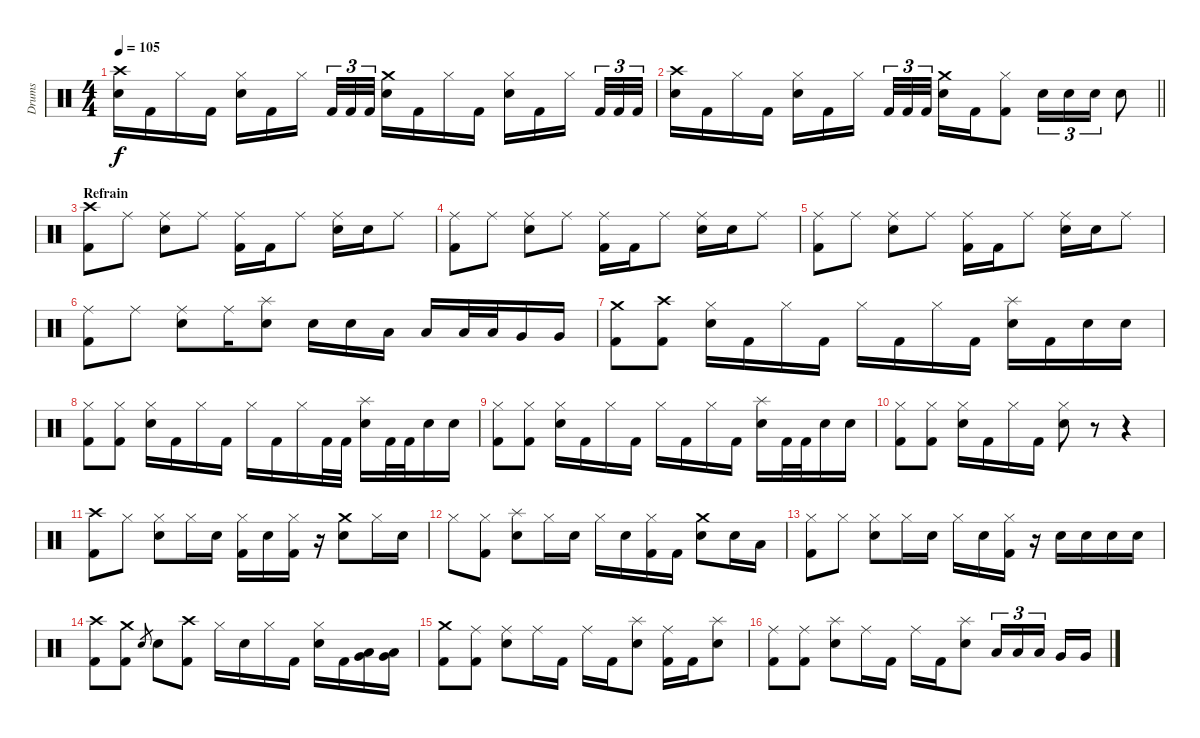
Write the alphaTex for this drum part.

\track ("Drums" "Drums") {instrument percussion}
\staff {score}
\articulation defaults
\ts (4 4)
\tempo 105
\clef neutral
\ks c
("Crash high (hit)" "Electric Snare (hit)").16{dy f} "Kick (hit) 2".16 "Hi-Hat (closed)".16 "Kick (hit) 2".16 ("Hi-Hat (closed)" "Electric Snare (hit)").16 "Kick (hit) 2".16 "Hi-Hat (closed)".16{beam splitsecondary} "Kick (hit) 2".32{tu (3 2)} "Kick (hit) 2".32{tu (3 2)} "Kick (hit) 2".32{tu (3 2)} ("Crash medium (hit)" "Electric Snare (hit)").16 "Kick (hit) 2".16 "Hi-Hat (closed)".16 "Kick (hit) 2".16 ("Hi-Hat (closed)" "Electric Snare (hit)").16 "Kick (hit) 2".16 "Hi-Hat (closed)".16{beam splitsecondary} "Kick (hit) 2".32{tu (3 2)} "Kick (hit) 2".32{tu (3 2)} "Kick (hit) 2".32{tu (3 2)} |
\barLineRight lightlight
("Crash high (hit)" "Electric Snare (hit)").16 "Kick (hit) 2".16 "Hi-Hat (closed)".16 "Kick (hit) 2".16 ("Hi-Hat (closed)" "Electric Snare (hit)").16 "Kick (hit) 2".16 "Hi-Hat (closed)".16{beam splitsecondary} "Kick (hit) 2".32{tu (3 2)} "Kick (hit) 2".32{tu (3 2)} "Kick (hit) 2".32{tu (3 2)} ("Crash medium (hit)" "Electric Snare (hit)").16 "Kick (hit) 2".16 ("Hi-Hat (closed)" "Kick (hit) 2").8 "Electric Snare (hit)".16{tu (3 2)} "Electric Snare (hit)".16{tu (3 2)} "Electric Snare (hit)".16{tu (3 2)} "Electric Snare (hit)".8 |
\section ("" "Refrain")
("Crash high (hit)" "Kick (hit) 2").8 "Ride (middle)".8 ("Ride (middle)" "Electric Snare (hit)").8 "Ride (middle)".8 ("Ride (middle)" "Kick (hit) 2").16 "Kick (hit) 2".16 "Ride (middle)".8 ("Ride (middle)" "Electric Snare (hit)").16 "Electric Snare (hit)".16 "Ride (middle)".8 |
("Ride (middle)" "Kick (hit) 2").8 "Ride (middle)".8 ("Ride (middle)" "Electric Snare (hit)").8 "Ride (middle)".8 ("Ride (middle)" "Kick (hit) 2").16 "Kick (hit) 2".16 "Ride (middle)".8 ("Ride (middle)" "Electric Snare (hit)").16 "Electric Snare (hit)".16 "Ride (middle)".8 |
("Ride (middle)" "Kick (hit) 2").8 "Ride (middle)".8 ("Ride (middle)" "Electric Snare (hit)").8 "Ride (middle)".8 ("Ride (middle)" "Kick (hit) 2").16 "Kick (hit) 2".16 "Ride (middle)".8 ("Ride (middle)" "Electric Snare (hit)").16 "Electric Snare (hit)".16 "Ride (middle)".8 |
("Ride (middle)" "Kick (hit) 2").8 "Ride (middle)".8 ("Ride (middle)" "Electric Snare (hit)").8 "Ride (middle)".16 ("Splash (hit)" "Electric Snare (hit)").8 "Electric Snare (hit)".16 "Electric Snare (hit)".16 "Low Tom (hit)".16 "Low Tom (hit)".16 "Low Tom (hit)".32 "Low Tom (hit)".32 "Very Low Tom (hit)".16 "Very Low Tom (hit)".16 |
("Crash medium (hit)" "Kick (hit) 2").8 ("Crash high (hit)" "Kick (hit) 2").8 ("Hi-Hat (closed)" "Electric Snare (hit)").16 "Kick (hit) 2".16 "Hi-Hat (closed)".16 "Kick (hit) 2".16 "Hi-Hat (closed)".16 "Kick (hit) 2".16 "Hi-Hat (closed)".16 "Kick (hit) 2".16 ("Splash (hit)" "Electric Snare (hit)").16 "Kick (hit) 2".16 "Electric Snare (hit)".16 "Electric Snare (hit)".16 |
("Hi-Hat (closed)" "Kick (hit) 2").8 ("Hi-Hat (closed)" "Kick (hit) 2").8 ("Hi-Hat (closed)" "Electric Snare (hit)").16 "Kick (hit) 2".16 "Hi-Hat (closed)".16 "Kick (hit) 2".16 "Hi-Hat (closed)".16 "Kick (hit) 2".16 "Hi-Hat (closed)".16 "Kick (hit) 2".32 "Kick (hit) 2".32 ("Splash (hit)" "Electric Snare (hit)").16 "Kick (hit) 2".32 "Kick (hit) 2".32 "Electric Snare (hit)".16 "Electric Snare (hit)".16 |
("Hi-Hat (closed)" "Kick (hit) 2").8 ("Hi-Hat (closed)" "Kick (hit) 2").8 ("Hi-Hat (closed)" "Electric Snare (hit)").16 "Kick (hit) 2".16 "Hi-Hat (closed)".16 "Kick (hit) 2".16 "Hi-Hat (closed)".16 "Kick (hit) 2".16 "Hi-Hat (closed)".16 "Kick (hit) 2".16 ("Splash (hit)" "Electric Snare (hit)").16 "Kick (hit) 2".32 "Kick (hit) 2".32 "Electric Snare (hit)".16 "Electric Snare (hit)".16 |
("Hi-Hat (closed)" "Kick (hit) 2").8 ("Hi-Hat (closed)" "Kick (hit) 2").8 ("Hi-Hat (closed)" "Electric Snare (hit)").16 "Kick (hit) 2".16 "Hi-Hat (closed)".16 "Kick (hit) 2".16 ("Hi-Hat (closed)" "Electric Snare (hit)").8 r.8 r.4 |
("Crash high (hit)" "Kick (hit) 2").8 "Hi-Hat (closed)".8 ("Hi-Hat (closed)" "Electric Snare (hit)").8 "Hi-Hat (closed)".16 "Electric Snare (hit)".16 ("Hi-Hat (closed)" "Kick (hit) 2").16 "Electric Snare (hit)".16 ("Hi-Hat (closed)" "Kick (hit) 2").16 r.16 ("Crash medium (hit)" "Electric Snare (hit)").8 "Hi-Hat (closed)".16 "Electric Snare (hit)".16 |
"Hi-Hat (closed)".8 ("Hi-Hat (closed)" "Kick (hit) 2").8 ("Splash (hit)" "Electric Snare (hit)").8 "Hi-Hat (closed)".16 "Electric Snare (hit)".16 "Hi-Hat (closed)".16 "Electric Snare (hit)".16 ("Hi-Hat (closed)" "Kick (hit) 2").16 "Kick (hit) 2".16 ("Crash medium (hit)" "Electric Snare (hit)").8 "Electric Snare (hit)".16 "Low Tom (hit)".16 |
("Hi-Hat (closed)" "Kick (hit) 2").8 "Hi-Hat (closed)".8 ("Hi-Hat (closed)" "Electric Snare (hit)").8 "Hi-Hat (closed)".16 "Electric Snare (hit)".16 "Hi-Hat (closed)".16 "Electric Snare (hit)".16 ("Hi-Hat (closed)" "Kick (hit) 2").16 r.16 "Electric Snare (hit)".16 "Electric Snare (hit)".16 "Electric Snare (hit)".16 "Electric Snare (hit)".16 |
("Crash high (hit)" "Kick (hit) 2").8 ("Crash medium (hit)" "Kick (hit) 2").8 "Electric Snare (hit)".8{gr} "Electric Snare (hit)".8 ("Crash high (hit)" "Kick (hit) 2").8 "Hi-Hat (closed)".16 "Electric Snare (hit)".16 "Hi-Hat (closed)".16 "Kick (hit) 2".16 ("Hi-Hat (closed)" "Electric Snare (hit)").16 "Kick (hit) 2".16 ("Low Tom (hit)" "Very Low Tom (hit)").16 ("Low Tom (hit)" "Very Low Tom (hit)").16 |
("Crash medium (hit)" "Kick (hit) 2").8 ("Ride (middle)" "Kick (hit) 2").8 ("Ride (middle)" "Electric Snare (hit)").8 "Ride (middle)".16 "Kick (hit) 2".16 "Ride (middle)".16 "Kick (hit) 2".16 ("Splash (hit)" "Electric Snare (hit)").8 ("Ride (middle)" "Kick (hit) 2").16 "Kick (hit) 2".16 ("Splash (hit)" "Electric Snare (hit)").8 |
("Ride (middle)" "Kick (hit) 2").8 ("Ride (middle)" "Kick (hit) 2").8 ("Splash (hit)" "Electric Snare (hit)").8 "Ride (middle)".16 "Kick (hit) 2".16 "Ride (middle)".16 "Kick (hit) 2".16 ("Splash (hit)" "Electric Snare (hit)").8 "Low Tom (hit)".16{tu (3 2)} "Low Tom (hit)".16{tu (3 2)} "Low Tom (hit)".16{tu (3 2) beam splitsecondary} "Very Low Tom (hit)".16 "Very Low Tom (hit)".16
